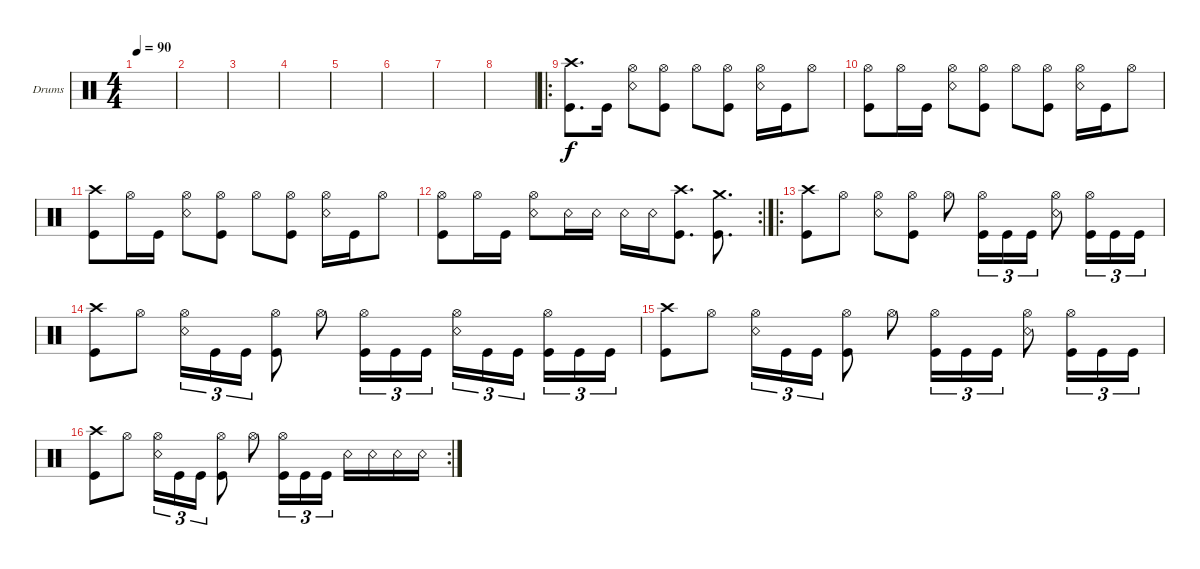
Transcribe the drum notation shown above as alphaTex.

\defaultSystemsLayout 4
\bracketExtendMode groupsimilarinstruments
\firstSystemTrackNameOrientation horizontal
\otherSystemsTrackNameOrientation horizontal
\track ("Drumkit" "Drums") {instrument percussion}
\staff {score}
\articulation defaults
\ts (4 4)
\tempo 90
\clef neutral
\ks c
|
|
|
|
|
|
|
|
\ro
("Kick (hit)" "Crash high (hit)").8{d} "Kick (hit)".16 ("Snare (rim shot)" "Hi-Hat (open)").8 ("Kick (hit)" "Hi-Hat (open)").8 "Hi-Hat (open)".8 ("Kick (hit)" "Hi-Hat (open)").8 ("Snare (rim shot)" "Hi-Hat (open)").16 "Kick (hit)".16 "Hi-Hat (open)".8 |
("Kick (hit)" "Hi-Hat (open)").8 "Hi-Hat (open)".16 "Kick (hit)".16 ("Snare (rim shot)" "Hi-Hat (open)").8 ("Kick (hit)" "Hi-Hat (open)").8 "Hi-Hat (open)".8 ("Kick (hit)" "Hi-Hat (open)").8 ("Snare (rim shot)" "Hi-Hat (open)").16 "Kick (hit)".16 "Hi-Hat (open)".8 |
("Kick (hit)" "Crash high (hit)").8 "Hi-Hat (open)".16 "Kick (hit)".16 ("Snare (rim shot)" "Hi-Hat (open)").8 ("Kick (hit)" "Hi-Hat (open)").8 "Hi-Hat (open)".8 ("Kick (hit)" "Hi-Hat (open)").8 ("Snare (rim shot)" "Hi-Hat (open)").16 "Kick (hit)".16 "Hi-Hat (open)".8 |
\rc 2
("Kick (hit)" "Hi-Hat (open)").8 "Hi-Hat (open)".16 "Kick (hit)".16 ("Snare (rim shot)" "Hi-Hat (open)").8 "Snare (rim shot)".16 "Snare (rim shot)".16 "Snare (rim shot)".16 "Snare (rim shot)".16 ("Kick (hit)" "Crash high (hit)").8{d} ("Kick (hit)" "Crash medium (hit)").8{d} |
\ro
("Kick (hit)" "Crash high (hit)").8 "Hi-Hat (open)".8 ("Snare (rim shot)" "Hi-Hat (open)").8 ("Kick (hit)" "Hi-Hat (open)").8 "Hi-Hat (open)".8 ("Kick (hit)" "Hi-Hat (open)").16{tu (3 2)} "Kick (hit)".16{tu (3 2)} "Kick (hit)".16{tu (3 2)} ("Snare (rim shot)" "Hi-Hat (open)").8 ("Hi-Hat (open)" "Kick (hit)").16{tu (3 2)} "Kick (hit)".16{tu (3 2)} "Kick (hit)".16{tu (3 2)} |
("Kick (hit)" "Crash high (hit)").8 "Hi-Hat (open)".8 ("Snare (rim shot)" "Hi-Hat (open)").16{tu (3 2)} "Kick (hit)".16{tu (3 2)} "Kick (hit)".16{tu (3 2)} ("Kick (hit)" "Hi-Hat (open)").8 "Hi-Hat (open)".8 ("Kick (hit)" "Hi-Hat (open)").16{tu (3 2)} "Kick (hit)".16{tu (3 2)} "Kick (hit)".16{tu (3 2)} ("Snare (rim shot)" "Hi-Hat (open)").16{tu (3 2)} "Kick (hit)".16{tu (3 2)} "Kick (hit)".16{tu (3 2)} ("Hi-Hat (open)" "Kick (hit)").16{tu (3 2)} "Kick (hit)".16{tu (3 2)} "Kick (hit)".16{tu (3 2)} |
("Kick (hit)" "Crash high (hit)").8 "Hi-Hat (open)".8 ("Snare (rim shot)" "Hi-Hat (open)").16{tu (3 2)} "Kick (hit)".16{tu (3 2)} "Kick (hit)".16{tu (3 2)} ("Kick (hit)" "Hi-Hat (open)").8 "Hi-Hat (open)".8 ("Kick (hit)" "Hi-Hat (open)").16{tu (3 2)} "Kick (hit)".16{tu (3 2)} "Kick (hit)".16{tu (3 2)} ("Snare (rim shot)" "Hi-Hat (open)").8 ("Hi-Hat (open)" "Kick (hit)").16{tu (3 2)} "Kick (hit)".16{tu (3 2)} "Kick (hit)".16{tu (3 2)} |
\rc 2
("Kick (hit)" "Crash high (hit)").8 "Hi-Hat (open)".8 ("Snare (rim shot)" "Hi-Hat (open)").16{tu (3 2)} "Kick (hit)".16{tu (3 2)} "Kick (hit)".16{tu (3 2)} ("Kick (hit)" "Hi-Hat (open)").8 "Hi-Hat (open)".8 ("Kick (hit)" "Hi-Hat (open)").16{tu (3 2)} "Kick (hit)".16{tu (3 2)} "Kick (hit)".16{tu (3 2)} "Snare (rim shot)".16 "Snare (rim shot)".16 "Snare (rim shot)".16 "Snare (rim shot)".16
